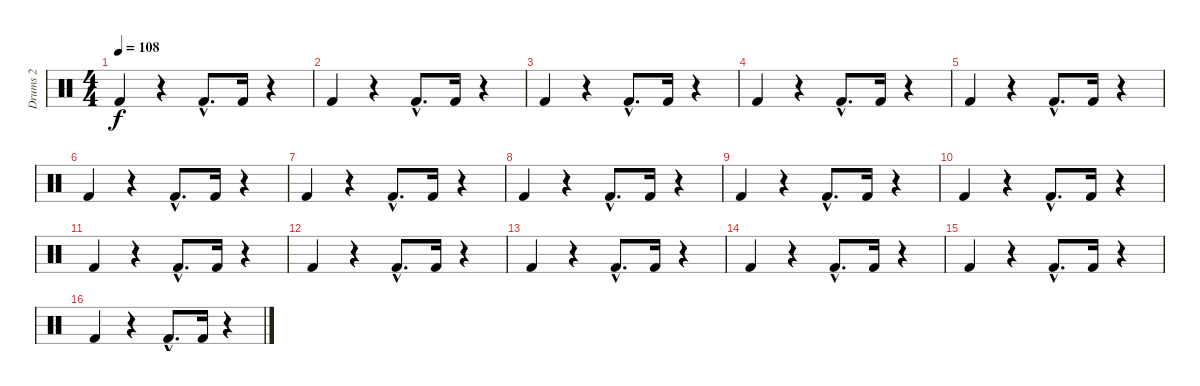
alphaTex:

\track ("Drums 2" "Drums 2") {instrument percussion}
\staff {score}
\articulation defaults
\ts (4 4)
\tempo 108
\clef neutral
\ks c "Kick (hit) 2".4{dy f}
r.4 "Kick (hit) 2"{hac}.8{d} "Kick (hit) 2".16 r.4 |
"Kick (hit) 2".4 r.4 "Kick (hit) 2"{hac}.8{d} "Kick (hit) 2".16 r.4 |
"Kick (hit) 2".4 r.4 "Kick (hit) 2"{hac}.8{d} "Kick (hit) 2".16 r.4 |
"Kick (hit) 2".4 r.4 "Kick (hit) 2"{hac}.8{d} "Kick (hit) 2".16 r.4 |
"Kick (hit) 2".4 r.4 "Kick (hit) 2"{hac}.8{d} "Kick (hit) 2".16 r.4 |
"Kick (hit) 2".4 r.4 "Kick (hit) 2"{hac}.8{d} "Kick (hit) 2".16 r.4 |
"Kick (hit) 2".4 r.4 "Kick (hit) 2"{hac}.8{d} "Kick (hit) 2".16 r.4 |
"Kick (hit) 2".4 r.4 "Kick (hit) 2"{hac}.8{d} "Kick (hit) 2".16 r.4 |
"Kick (hit) 2".4 r.4 "Kick (hit) 2"{hac}.8{d} "Kick (hit) 2".16 r.4 |
"Kick (hit) 2".4 r.4 "Kick (hit) 2"{hac}.8{d} "Kick (hit) 2".16 r.4 |
"Kick (hit) 2".4 r.4 "Kick (hit) 2"{hac}.8{d} "Kick (hit) 2".16 r.4 |
"Kick (hit) 2".4 r.4 "Kick (hit) 2"{hac}.8{d} "Kick (hit) 2".16 r.4 |
"Kick (hit) 2".4 r.4 "Kick (hit) 2"{hac}.8{d} "Kick (hit) 2".16 r.4 |
"Kick (hit) 2".4 r.4 "Kick (hit) 2"{hac}.8{d} "Kick (hit) 2".16 r.4 |
"Kick (hit) 2".4 r.4 "Kick (hit) 2"{hac}.8{d} "Kick (hit) 2".16 r.4 |
"Kick (hit) 2".4 r.4 "Kick (hit) 2"{hac}.8{d} "Kick (hit) 2".16 r.4
